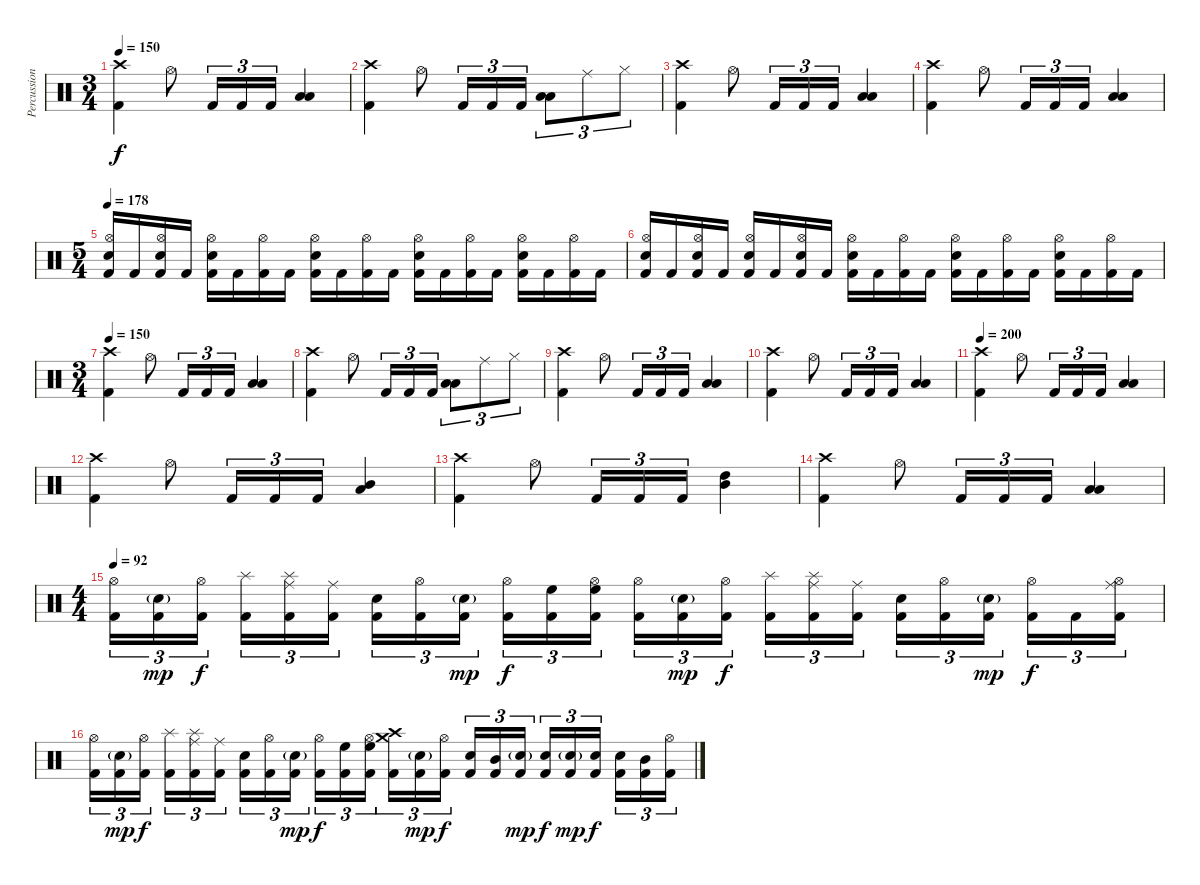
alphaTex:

\track ("Percussion" "Percussion") {instrument percussion}
\staff {score}
\articulation defaults
\ts (3 4)
\tempo 150
\clef neutral
\ks c
("Crash high (hit)" "Kick (hit) 2").4{dy f} "Hi-Hat (open)".8 "Kick (hit) 2".16{tu (3 2)} "Kick (hit) 2".16{tu (3 2)} "Kick (hit) 2".16{tu (3 2)} ("Low Tom (hit)" "Low Floor Tom (hit)").4 |
("Crash high (hit)" "Kick (hit) 2").4 "Hi-Hat (open)".8 "Kick (hit) 2".16{tu (3 2)} "Kick (hit) 2".16{tu (3 2)} "Kick (hit) 2".16{tu (3 2)} ("Low Tom (hit)" "Low Floor Tom (hit)").8{tu (3 2)} "Ride (middle)".8{tu (3 2)} "Hi-Hat (closed)".8{tu (3 2)} |
("Crash high (hit)" "Kick (hit) 2").4 "Hi-Hat (open)".8 "Kick (hit) 2".16{tu (3 2)} "Kick (hit) 2".16{tu (3 2)} "Kick (hit) 2".16{tu (3 2)} ("Low Tom (hit)" "Low Floor Tom (hit)").4 |
("Crash high (hit)" "Kick (hit) 2").4 "Hi-Hat (open)".8 "Kick (hit) 2".16{tu (3 2)} "Kick (hit) 2".16{tu (3 2)} "Kick (hit) 2".16{tu (3 2)} ("Low Tom (hit)" "Low Floor Tom (hit)").4 |
\ts (5 4)
\tempo 178
("Hi-Hat (open)" "Electric Snare (hit)" "Kick (hit) 2").16 "Kick (hit) 2".16 ("Hi-Hat (open)" "Electric Snare (hit)" "Kick (hit) 2").16 "Kick (hit) 2".16 ("Hi-Hat (open)" "Electric Snare (hit)" "Kick (hit) 2").16 "Kick (hit) 2".16 ("Hi-Hat (open)" "Kick (hit) 2").16 "Kick (hit) 2".16 ("Hi-Hat (open)" "Electric Snare (hit)" "Kick (hit) 2").16 "Kick (hit) 2".16 ("Hi-Hat (open)" "Kick (hit) 2").16 "Kick (hit) 2".16 ("Hi-Hat (open)" "Electric Snare (hit)" "Kick (hit) 2").16 "Kick (hit) 2".16 ("Hi-Hat (open)" "Kick (hit) 2").16 "Kick (hit) 2".16 ("Hi-Hat (open)" "Electric Snare (hit)" "Kick (hit) 2").16 "Kick (hit) 2".16 ("Hi-Hat (open)" "Kick (hit) 2").16 "Kick (hit) 2".16 |
("Hi-Hat (open)" "Electric Snare (hit)" "Kick (hit) 2").16 "Kick (hit) 2".16 ("Hi-Hat (open)" "Electric Snare (hit)" "Kick (hit) 2").16 "Kick (hit) 2".16 ("Hi-Hat (open)" "Electric Snare (hit)" "Kick (hit) 2").16 "Kick (hit) 2".16 ("Hi-Hat (open)" "Electric Snare (hit)" "Kick (hit) 2").16 "Kick (hit) 2".16 ("Hi-Hat (open)" "Electric Snare (hit)" "Kick (hit) 2").16 "Kick (hit) 2".16 ("Hi-Hat (open)" "Kick (hit) 2").16 "Kick (hit) 2".16 ("Hi-Hat (open)" "Electric Snare (hit)" "Kick (hit) 2").16 "Kick (hit) 2".16 ("Hi-Hat (open)" "Kick (hit) 2").16 "Kick (hit) 2".16 ("Hi-Hat (open)" "Electric Snare (hit)" "Kick (hit) 2").16 "Kick (hit) 2".16 ("Hi-Hat (open)" "Kick (hit) 2").16 "Kick (hit) 2".16 |
\ts (3 4)
\tempo 150
("Crash high (hit)" "Kick (hit) 2").4 "Hi-Hat (open)".8 "Kick (hit) 2".16{tu (3 2)} "Kick (hit) 2".16{tu (3 2)} "Kick (hit) 2".16{tu (3 2)} ("Low Tom (hit)" "Low Floor Tom (hit)").4 |
("Crash high (hit)" "Kick (hit) 2").4 "Hi-Hat (open)".8 "Kick (hit) 2".16{tu (3 2)} "Kick (hit) 2".16{tu (3 2)} "Kick (hit) 2".16{tu (3 2)} ("Low Tom (hit)" "Low Floor Tom (hit)").8{tu (3 2)} "Ride (middle)".8{tu (3 2)} "Hi-Hat (closed)".8{tu (3 2)} |
("Crash high (hit)" "Kick (hit) 2").4 "Hi-Hat (open)".8 "Kick (hit) 2".16{tu (3 2)} "Kick (hit) 2".16{tu (3 2)} "Kick (hit) 2".16{tu (3 2)} ("Low Tom (hit)" "Low Floor Tom (hit)").4 |
("Crash high (hit)" "Kick (hit) 2").4 "Hi-Hat (open)".8 "Kick (hit) 2".16{tu (3 2)} "Kick (hit) 2".16{tu (3 2)} "Kick (hit) 2".16{tu (3 2)} ("Low Tom (hit)" "Low Floor Tom (hit)").4 |
\tempo 200
("Crash high (hit)" "Kick (hit) 2").4 "Hi-Hat (open)".8 "Kick (hit) 2".16{tu (3 2)} "Kick (hit) 2".16{tu (3 2)} "Kick (hit) 2".16{tu (3 2)} ("Low Tom (hit)" "Low Floor Tom (hit)").4 |
("Crash high (hit)" "Kick (hit) 2").4 "Hi-Hat (open)".8 "Kick (hit) 2".16{tu (3 2)} "Kick (hit) 2".16{tu (3 2)} "Kick (hit) 2".16{tu (3 2)} ("Mid Tom (hit)" "Low Floor Tom (hit)").4 |
("Crash high (hit)" "Kick (hit) 2").4 "Hi-Hat (open)".8 "Kick (hit) 2".16{tu (3 2)} "Kick (hit) 2".16{tu (3 2)} "Kick (hit) 2".16{tu (3 2)} ("High Tom (hit)" "Mid Tom (hit)").4 |
("Crash high (hit)" "Kick (hit) 2").4 "Hi-Hat (open)".8 "Kick (hit) 2".16{tu (3 2)} "Kick (hit) 2".16{tu (3 2)} "Kick (hit) 2".16{tu (3 2)} ("Low Tom (hit)" "Low Floor Tom (hit)").4 |
\ts (4 4)
\tempo 92
("Hi-Hat (open)" "Kick (hit) 2").16{tu (3 2)} ("Electric Snare (hit)"{g} "Kick (hit) 2").16{tu (3 2) dy mp} ("Hi-Hat (open)" "Kick (hit) 2").16{tu (3 2) dy f} ("Splash (hit)" "Kick (hit) 2").16{tu (3 2)} ("Ride (middle)" "Splash (hit)" "Kick (hit) 2").16{tu (3 2)} ("Ride (middle)" "Kick (hit) 2").16{tu (3 2)} ("Electric Snare (hit)" "Kick (hit) 2").16{tu (3 2)} ("Hi-Hat (open)" "Kick (hit) 2").16{tu (3 2)} ("Electric Snare (hit)"{g} "Kick (hit) 2").16{tu (3 2) dy mp} ("Hi-Hat (open)" "Kick (hit) 2").16{tu (3 2) dy f} ("High Floor Tom (hit)" "Kick (hit) 2").16{tu (3 2)} ("Hi-Hat (open)" "High Floor Tom (hit)" "Kick (hit) 2").16{tu (3 2)} ("Hi-Hat (open)" "Kick (hit) 2").16{tu (3 2)} ("Electric Snare (hit)"{g} "Kick (hit) 2").16{tu (3 2) dy mp} ("Hi-Hat (open)" "Kick (hit) 2").16{tu (3 2) dy f} ("Splash (hit)" "Kick (hit) 2").16{tu (3 2)} ("Ride (middle)" "Splash (hit)" "Kick (hit) 2").16{tu (3 2)} ("Ride (middle)" "Kick (hit) 2").16{tu (3 2)} ("Electric Snare (hit)" "Kick (hit) 2").16{tu (3 2)} ("Hi-Hat (open)" "Kick (hit) 2").16{tu (3 2)} ("Electric Snare (hit)"{g} "Kick (hit) 2").16{tu (3 2) dy mp} ("Hi-Hat (open)" "Kick (hit) 2").16{tu (3 2) dy f} "Kick (hit) 2".16{tu (3 2)} ("Ride (middle)" "Hi-Hat (open)" "Kick (hit) 2").16{tu (3 2)} |
("Hi-Hat (open)" "Kick (hit) 2").16{tu (3 2)} ("Electric Snare (hit)"{g} "Kick (hit) 2").16{tu (3 2) dy mp} ("Hi-Hat (open)" "Kick (hit) 2").16{tu (3 2) dy f} ("Splash (hit)" "Kick (hit) 2").16{tu (3 2)} ("Ride (middle)" "Splash (hit)" "Kick (hit) 2").16{tu (3 2)} ("Ride (middle)" "Kick (hit) 2").16{tu (3 2)} ("Electric Snare (hit)" "Kick (hit) 2").16{tu (3 2)} ("Hi-Hat (open)" "Kick (hit) 2").16{tu (3 2)} ("Electric Snare (hit)"{g} "Kick (hit) 2").16{tu (3 2) dy mp} ("Hi-Hat (open)" "Kick (hit) 2").16{tu (3 2) dy f} ("High Floor Tom (hit)" "Kick (hit) 2").16{tu (3 2)} ("Hi-Hat (open)" "High Floor Tom (hit)" "Kick (hit) 2").16{tu (3 2)} ("Crash medium (hit)" "Crash high (hit)" "Kick (hit) 2").16{tu (3 2)} ("Electric Snare (hit)"{g} "Kick (hit) 2").16{tu (3 2) dy mp} ("Hi-Hat (open)" "Kick (hit) 2").16{tu (3 2) dy f} ("Electric Snare (hit)" "Kick (hit) 2").16{tu (3 2)} ("Mid Tom (hit)" "Kick (hit) 2").16{tu (3 2)} ("Electric Snare (hit)"{g} "Kick (hit) 2").16{tu (3 2) dy mp} ("Electric Snare (hit)" "Kick (hit) 2").16{tu (3 2) dy f} ("Electric Snare (hit)"{g} "Kick (hit) 2").16{tu (3 2) dy mp} ("Electric Snare (hit)" "Kick (hit) 2").16{tu (3 2) dy f} ("Electric Snare (hit)" "Kick (hit) 2").16{tu (3 2)} ("Mid Tom (hit)" "Kick (hit) 2").16{tu (3 2)} ("Hi-Hat (open)" "Kick (hit) 2").16{tu (3 2)}
